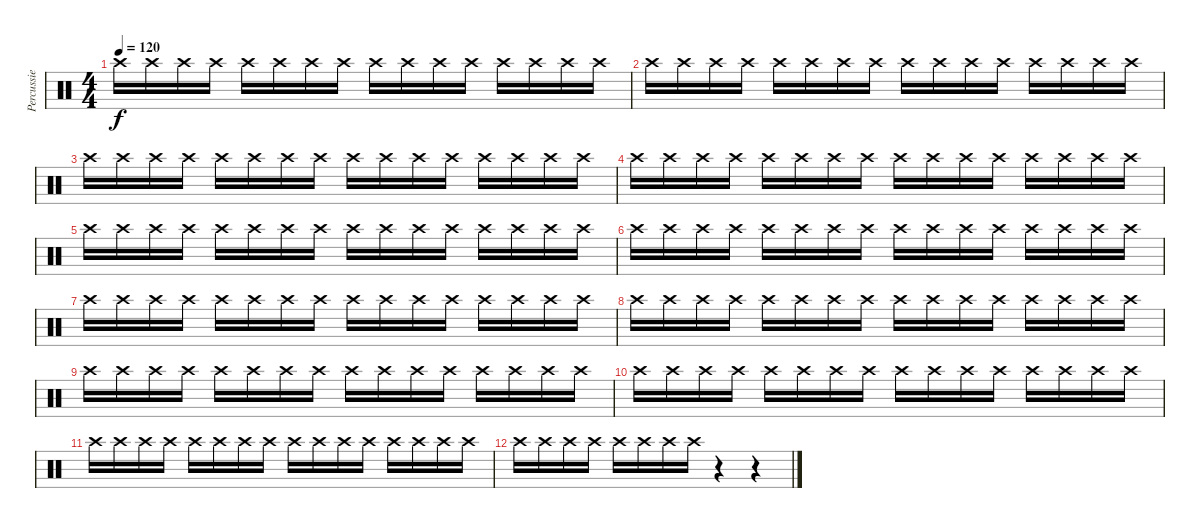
\track ("Percussie" "Percussie") {instrument percussion}
\staff {score}
\articulation defaults
\ts (4 4)
\tempo 120
\clef neutral
\ks c "Crash high (hit)".16{dy f} "Crash high (hit)".16 "Crash high (hit)".16 "Crash high (hit)".16 "Crash high (hit)".16 "Crash high (hit)".16 "Crash high (hit)".16 "Crash high (hit)".16 "Crash high (hit)".16 "Crash high (hit)".16 "Crash high (hit)".16 "Crash high (hit)".16 "Crash high (hit)".16 "Crash high (hit)".16 "Crash high (hit)".16 "Crash high (hit)".16
|
"Crash high (hit)".16 "Crash high (hit)".16 "Crash high (hit)".16 "Crash high (hit)".16 "Crash high (hit)".16 "Crash high (hit)".16 "Crash high (hit)".16 "Crash high (hit)".16 "Crash high (hit)".16 "Crash high (hit)".16 "Crash high (hit)".16 "Crash high (hit)".16 "Crash high (hit)".16 "Crash high (hit)".16 "Crash high (hit)".16 "Crash high (hit)".16 |
"Crash high (hit)".16 "Crash high (hit)".16 "Crash high (hit)".16 "Crash high (hit)".16 "Crash high (hit)".16 "Crash high (hit)".16 "Crash high (hit)".16 "Crash high (hit)".16 "Crash high (hit)".16 "Crash high (hit)".16 "Crash high (hit)".16 "Crash high (hit)".16 "Crash high (hit)".16 "Crash high (hit)".16 "Crash high (hit)".16 "Crash high (hit)".16 |
"Crash high (hit)".16 "Crash high (hit)".16 "Crash high (hit)".16 "Crash high (hit)".16 "Crash high (hit)".16 "Crash high (hit)".16 "Crash high (hit)".16 "Crash high (hit)".16 "Crash high (hit)".16 "Crash high (hit)".16 "Crash high (hit)".16 "Crash high (hit)".16 "Crash high (hit)".16 "Crash high (hit)".16 "Crash high (hit)".16 "Crash high (hit)".16 |
"Crash high (hit)".16 "Crash high (hit)".16 "Crash high (hit)".16 "Crash high (hit)".16 "Crash high (hit)".16 "Crash high (hit)".16 "Crash high (hit)".16 "Crash high (hit)".16 "Crash high (hit)".16 "Crash high (hit)".16 "Crash high (hit)".16 "Crash high (hit)".16 "Crash high (hit)".16 "Crash high (hit)".16 "Crash high (hit)".16 "Crash high (hit)".16 |
"Crash high (hit)".16 "Crash high (hit)".16 "Crash high (hit)".16 "Crash high (hit)".16 "Crash high (hit)".16 "Crash high (hit)".16 "Crash high (hit)".16 "Crash high (hit)".16 "Crash high (hit)".16 "Crash high (hit)".16 "Crash high (hit)".16 "Crash high (hit)".16 "Crash high (hit)".16 "Crash high (hit)".16 "Crash high (hit)".16 "Crash high (hit)".16 |
"Crash high (hit)".16 "Crash high (hit)".16 "Crash high (hit)".16 "Crash high (hit)".16 "Crash high (hit)".16 "Crash high (hit)".16 "Crash high (hit)".16 "Crash high (hit)".16 "Crash high (hit)".16 "Crash high (hit)".16 "Crash high (hit)".16 "Crash high (hit)".16 "Crash high (hit)".16 "Crash high (hit)".16 "Crash high (hit)".16 "Crash high (hit)".16 |
"Crash high (hit)".16 "Crash high (hit)".16 "Crash high (hit)".16 "Crash high (hit)".16 "Crash high (hit)".16 "Crash high (hit)".16 "Crash high (hit)".16 "Crash high (hit)".16 "Crash high (hit)".16 "Crash high (hit)".16 "Crash high (hit)".16 "Crash high (hit)".16 "Crash high (hit)".16 "Crash high (hit)".16 "Crash high (hit)".16 "Crash high (hit)".16 |
"Crash high (hit)".16 "Crash high (hit)".16 "Crash high (hit)".16 "Crash high (hit)".16 "Crash high (hit)".16 "Crash high (hit)".16 "Crash high (hit)".16 "Crash high (hit)".16 "Crash high (hit)".16 "Crash high (hit)".16 "Crash high (hit)".16 "Crash high (hit)".16 "Crash high (hit)".16 "Crash high (hit)".16 "Crash high (hit)".16 "Crash high (hit)".16 |
"Crash high (hit)".16 "Crash high (hit)".16 "Crash high (hit)".16 "Crash high (hit)".16 "Crash high (hit)".16 "Crash high (hit)".16 "Crash high (hit)".16 "Crash high (hit)".16 "Crash high (hit)".16 "Crash high (hit)".16 "Crash high (hit)".16 "Crash high (hit)".16 "Crash high (hit)".16 "Crash high (hit)".16 "Crash high (hit)".16 "Crash high (hit)".16 |
"Crash high (hit)".16 "Crash high (hit)".16 "Crash high (hit)".16 "Crash high (hit)".16 "Crash high (hit)".16 "Crash high (hit)".16 "Crash high (hit)".16 "Crash high (hit)".16 "Crash high (hit)".16 "Crash high (hit)".16 "Crash high (hit)".16 "Crash high (hit)".16 "Crash high (hit)".16 "Crash high (hit)".16 "Crash high (hit)".16 "Crash high (hit)".16 |
"Crash high (hit)".16 "Crash high (hit)".16 "Crash high (hit)".16 "Crash high (hit)".16 "Crash high (hit)".16 "Crash high (hit)".16 "Crash high (hit)".16 "Crash high (hit)".16 r.4 r.4
